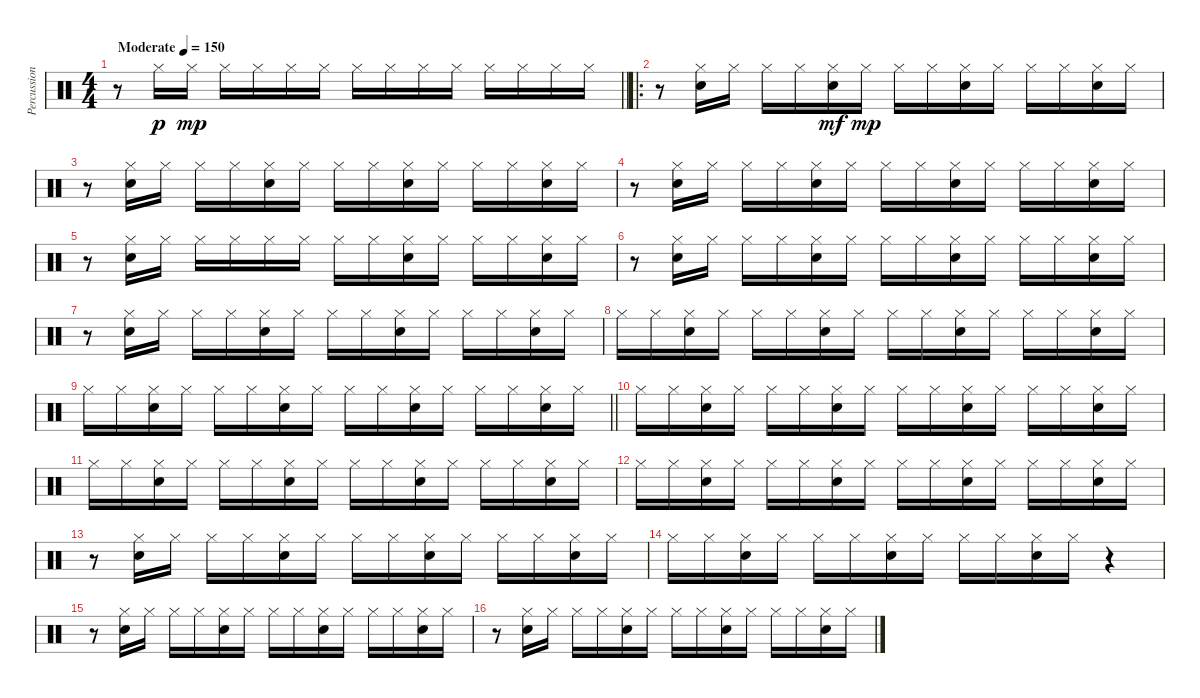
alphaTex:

\track ("Percussions" "Percussion") {instrument percussion}
\staff {score}
\articulation defaults
\ts (4 4)
\tempo (150 "Moderate")
\clef neutral
\barLineRight lightlight
\ks c
r.8{dy p} "Hi-Hat (closed)".16 "Hi-Hat (closed)".16{dy mp} "Hi-Hat (closed)".16 "Hi-Hat (closed)".16 "Hi-Hat (closed)".16 "Hi-Hat (closed)".16 "Hi-Hat (closed)".16 "Hi-Hat (closed)".16 "Hi-Hat (closed)".16 "Hi-Hat (closed)".16 "Hi-Hat (closed)".16 "Hi-Hat (closed)".16 "Hi-Hat (closed)".16 "Hi-Hat (closed)".16 |
\ro
\section ("" "")
r.8 ("Hi-Hat (closed)" "Snare (hit) 2").16 "Hi-Hat (closed)".16 "Hi-Hat (closed)".16 "Hi-Hat (closed)".16 ("Hi-Hat (closed)" "Snare (hit) 2").16{dy mf} "Hi-Hat (closed)".16{dy mp} "Hi-Hat (closed)".16 "Hi-Hat (closed)".16 ("Hi-Hat (closed)" "Snare (hit) 2").16 "Hi-Hat (closed)".16 "Hi-Hat (closed)".16 "Hi-Hat (closed)".16 ("Hi-Hat (closed)" "Snare (hit) 2").16 "Hi-Hat (closed)".16 |
r.8 ("Hi-Hat (closed)" "Snare (hit) 2").16 "Hi-Hat (closed)".16 "Hi-Hat (closed)".16 "Hi-Hat (closed)".16 ("Hi-Hat (closed)" "Snare (hit) 2").16 "Hi-Hat (closed)".16 "Hi-Hat (closed)".16 "Hi-Hat (closed)".16 ("Hi-Hat (closed)" "Snare (hit) 2").16 "Hi-Hat (closed)".16 "Hi-Hat (closed)".16 "Hi-Hat (closed)".16 ("Hi-Hat (closed)" "Snare (hit) 2").16 "Hi-Hat (closed)".16 |
r.8 ("Hi-Hat (closed)" "Snare (hit) 2").16 "Hi-Hat (closed)".16 "Hi-Hat (closed)".16 "Hi-Hat (closed)".16 ("Hi-Hat (closed)" "Snare (hit) 2").16 "Hi-Hat (closed)".16 "Hi-Hat (closed)".16 "Hi-Hat (closed)".16 ("Hi-Hat (closed)" "Snare (hit) 2").16 "Hi-Hat (closed)".16 "Hi-Hat (closed)".16 "Hi-Hat (closed)".16 ("Hi-Hat (closed)" "Snare (hit) 2").16 "Hi-Hat (closed)".16 |
r.8 ("Hi-Hat (closed)" "Snare (hit) 2").16 "Hi-Hat (closed)".16 "Hi-Hat (closed)".16 "Hi-Hat (closed)".16 "Hi-Hat (closed)".16 "Hi-Hat (closed)".16 "Hi-Hat (closed)".16 "Hi-Hat (closed)".16 ("Hi-Hat (closed)" "Snare (hit) 2").16 "Hi-Hat (closed)".16 "Hi-Hat (closed)".16 "Hi-Hat (closed)".16 ("Hi-Hat (closed)" "Snare (hit) 2").16 "Hi-Hat (closed)".16 |
r.8 ("Hi-Hat (closed)" "Snare (hit) 2").16 "Hi-Hat (closed)".16 "Hi-Hat (closed)".16 "Hi-Hat (closed)".16 ("Hi-Hat (closed)" "Snare (hit) 2").16 "Hi-Hat (closed)".16 "Hi-Hat (closed)".16 "Hi-Hat (closed)".16 ("Hi-Hat (closed)" "Snare (hit) 2").16 "Hi-Hat (closed)".16 "Hi-Hat (closed)".16 "Hi-Hat (closed)".16 ("Hi-Hat (closed)" "Snare (hit) 2").16 "Hi-Hat (closed)".16 |
r.8 ("Hi-Hat (closed)" "Snare (hit) 2").16 "Hi-Hat (closed)".16 "Hi-Hat (closed)".16 "Hi-Hat (closed)".16 ("Hi-Hat (closed)" "Snare (hit) 2").16 "Hi-Hat (closed)".16 "Hi-Hat (closed)".16 "Hi-Hat (closed)".16 ("Hi-Hat (closed)" "Snare (hit) 2").16 "Hi-Hat (closed)".16 "Hi-Hat (closed)".16 "Hi-Hat (closed)".16 ("Hi-Hat (closed)" "Snare (hit) 2").16 "Hi-Hat (closed)".16 |
"Hi-Hat (closed)".16 "Hi-Hat (closed)".16 ("Hi-Hat (closed)" "Snare (hit) 2").16 "Hi-Hat (closed)".16 "Hi-Hat (closed)".16 "Hi-Hat (closed)".16 ("Hi-Hat (closed)" "Snare (hit) 2").16 "Hi-Hat (closed)".16 "Hi-Hat (closed)".16 "Hi-Hat (closed)".16 ("Hi-Hat (closed)" "Snare (hit) 2").16 "Hi-Hat (closed)".16 "Hi-Hat (closed)".16 "Hi-Hat (closed)".16 ("Hi-Hat (closed)" "Snare (hit) 2").16 "Hi-Hat (closed)".16 |
\barLineRight lightlight "Hi-Hat (closed)".16 "Hi-Hat (closed)".16
("Hi-Hat (closed)" "Snare (hit) 2").16 "Hi-Hat (closed)".16 "Hi-Hat (closed)".16 "Hi-Hat (closed)".16 ("Hi-Hat (closed)" "Snare (hit) 2").16 "Hi-Hat (closed)".16 "Hi-Hat (closed)".16 "Hi-Hat (closed)".16 ("Hi-Hat (closed)" "Snare (hit) 2").16 "Hi-Hat (closed)".16 "Hi-Hat (closed)".16 "Hi-Hat (closed)".16 ("Hi-Hat (closed)" "Snare (hit) 2").16 "Hi-Hat (closed)".16 |
\section ("" "")
"Hi-Hat (closed)".16 "Hi-Hat (closed)".16 ("Hi-Hat (closed)" "Snare (hit) 2").16 "Hi-Hat (closed)".16 "Hi-Hat (closed)".16 "Hi-Hat (closed)".16 ("Hi-Hat (closed)" "Snare (hit) 2").16 "Hi-Hat (closed)".16 "Hi-Hat (closed)".16 "Hi-Hat (closed)".16 ("Hi-Hat (closed)" "Snare (hit) 2").16 "Hi-Hat (closed)".16 "Hi-Hat (closed)".16 "Hi-Hat (closed)".16 ("Hi-Hat (closed)" "Snare (hit) 2").16 "Hi-Hat (closed)".16 |
"Hi-Hat (closed)".16 "Hi-Hat (closed)".16 ("Hi-Hat (closed)" "Snare (hit) 2").16 "Hi-Hat (closed)".16 "Hi-Hat (closed)".16 "Hi-Hat (closed)".16 ("Hi-Hat (closed)" "Snare (hit) 2").16 "Hi-Hat (closed)".16 "Hi-Hat (closed)".16 "Hi-Hat (closed)".16 ("Hi-Hat (closed)" "Snare (hit) 2").16 "Hi-Hat (closed)".16 "Hi-Hat (closed)".16 "Hi-Hat (closed)".16 ("Hi-Hat (closed)" "Snare (hit) 2").16 "Hi-Hat (closed)".16 |
"Hi-Hat (closed)".16 "Hi-Hat (closed)".16 ("Hi-Hat (closed)" "Snare (hit) 2").16 "Hi-Hat (closed)".16 "Hi-Hat (closed)".16 "Hi-Hat (closed)".16 ("Hi-Hat (closed)" "Snare (hit) 2").16 "Hi-Hat (closed)".16 "Hi-Hat (closed)".16 "Hi-Hat (closed)".16 ("Hi-Hat (closed)" "Snare (hit) 2").16 "Hi-Hat (closed)".16 "Hi-Hat (closed)".16 "Hi-Hat (closed)".16 ("Hi-Hat (closed)" "Snare (hit) 2").16 "Hi-Hat (closed)".16 |
r.8 ("Hi-Hat (closed)" "Snare (hit) 2").16 "Hi-Hat (closed)".16 "Hi-Hat (closed)".16 "Hi-Hat (closed)".16 ("Hi-Hat (closed)" "Snare (hit) 2").16 "Hi-Hat (closed)".16 "Hi-Hat (closed)".16 "Hi-Hat (closed)".16 ("Hi-Hat (closed)" "Snare (hit) 2").16 "Hi-Hat (closed)".16 "Hi-Hat (closed)".16 "Hi-Hat (closed)".16 ("Hi-Hat (closed)" "Snare (hit) 2").16 "Hi-Hat (closed)".16 |
"Hi-Hat (closed)".16 "Hi-Hat (closed)".16 ("Hi-Hat (closed)" "Snare (hit) 2").16 "Hi-Hat (closed)".16 "Hi-Hat (closed)".16 "Hi-Hat (closed)".16 ("Hi-Hat (closed)" "Snare (hit) 2").16 "Hi-Hat (closed)".16 "Hi-Hat (closed)".16 "Hi-Hat (closed)".16 ("Hi-Hat (closed)" "Snare (hit) 2").16 "Hi-Hat (closed)".16 r.4 |
r.8 ("Hi-Hat (closed)" "Snare (hit) 2").16 "Hi-Hat (closed)".16 "Hi-Hat (closed)".16 "Hi-Hat (closed)".16 ("Hi-Hat (closed)" "Snare (hit) 2").16 "Hi-Hat (closed)".16 "Hi-Hat (closed)".16 "Hi-Hat (closed)".16 ("Hi-Hat (closed)" "Snare (hit) 2").16 "Hi-Hat (closed)".16 "Hi-Hat (closed)".16 "Hi-Hat (closed)".16 ("Hi-Hat (closed)" "Snare (hit) 2").16 "Hi-Hat (closed)".16 |
r.8 ("Hi-Hat (closed)" "Snare (hit) 2").16 "Hi-Hat (closed)".16 "Hi-Hat (closed)".16 "Hi-Hat (closed)".16 ("Hi-Hat (closed)" "Snare (hit) 2").16 "Hi-Hat (closed)".16 "Hi-Hat (closed)".16 "Hi-Hat (closed)".16 ("Hi-Hat (closed)" "Snare (hit) 2").16 "Hi-Hat (closed)".16 "Hi-Hat (closed)".16 "Hi-Hat (closed)".16 ("Hi-Hat (closed)" "Snare (hit) 2").16 "Hi-Hat (closed)".16
